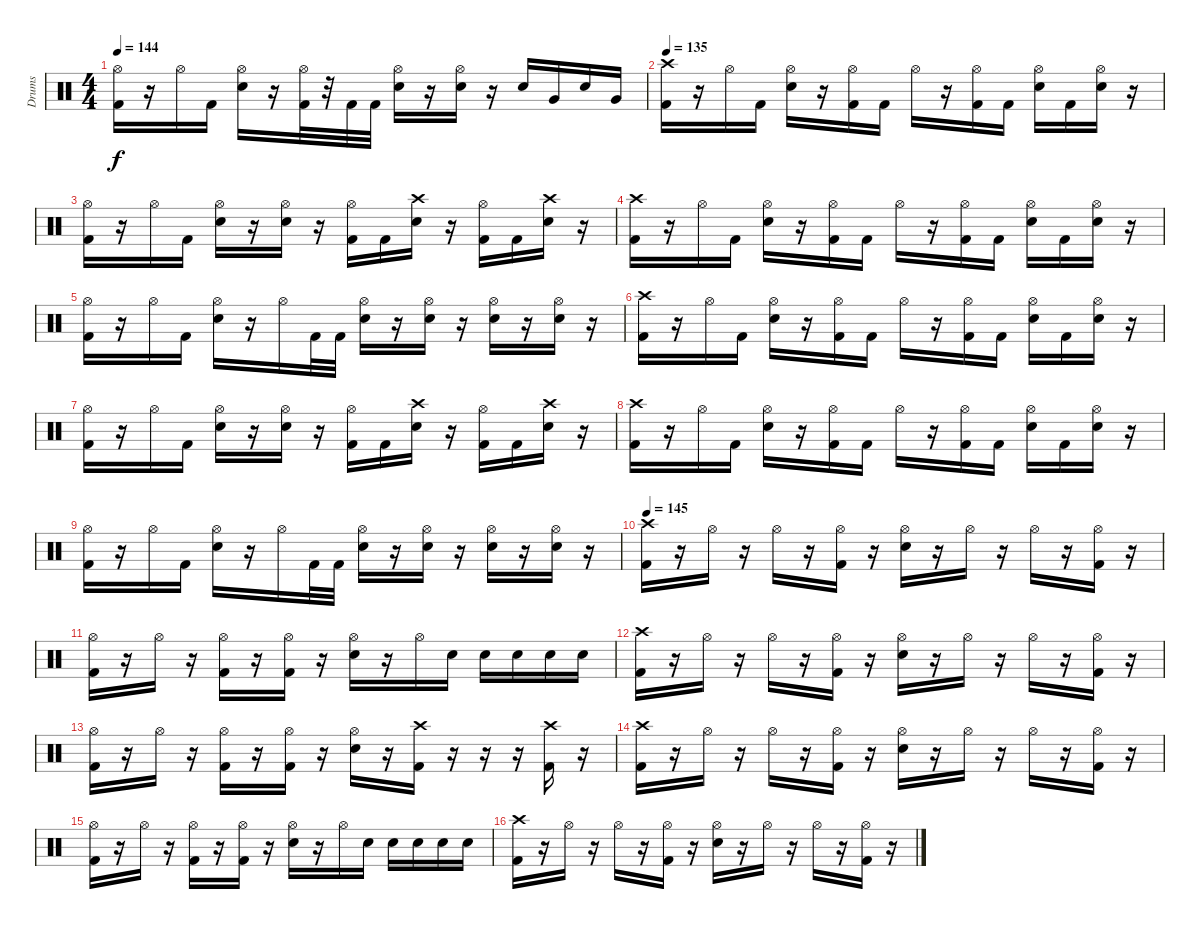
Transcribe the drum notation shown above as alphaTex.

\track ("Drums" "Drums") {instrument percussion}
\staff {score}
\articulation defaults
\ts (4 4)
\tempo 144
\clef neutral
\ks c
("Hi-Hat (open)" "Kick (hit) 2").16{dy f} r.16 "Hi-Hat (open)".16 "Kick (hit) 2".16 ("Hi-Hat (open)" "Snare (hit) 2").16 r.16 ("Hi-Hat (open)" "Kick (hit) 2").32 r.32 "Kick (hit) 2".32 "Kick (hit) 2".32 ("Hi-Hat (open)" "Snare (hit) 2").16 r.16 ("Hi-Hat (open)" "Snare (hit) 2").16 r.16 "Snare (hit) 2".16 "Very Low Tom (hit)".16 "Snare (hit) 2".16 "Very Low Tom (hit)".16 |
\tempo 135
("Crash high (hit)" "Kick (hit) 2").16 r.16 "Hi-Hat (open)".16 "Kick (hit) 2".16 ("Hi-Hat (open)" "Snare (hit) 2").16 r.16 ("Hi-Hat (open)" "Kick (hit) 2").16 "Kick (hit) 2".16 "Hi-Hat (open)".16 r.16 ("Hi-Hat (open)" "Kick (hit) 2").16 "Kick (hit) 2".16 ("Hi-Hat (open)" "Snare (hit) 2").16 "Kick (hit) 2".16 ("Hi-Hat (open)" "Snare (hit) 2").16 r.16 |
("Hi-Hat (open)" "Kick (hit) 2").16 r.16 "Hi-Hat (open)".16 "Kick (hit) 2".16 ("Hi-Hat (open)" "Snare (hit) 2").16 r.16 ("Hi-Hat (open)" "Snare (hit) 2").16 r.16 ("Hi-Hat (open)" "Kick (hit) 2").16 "Kick (hit) 2".16 ("Crash high (hit)" "Snare (hit) 2").16 r.16 ("Hi-Hat (open)" "Kick (hit) 2").16 "Kick (hit) 2".16 ("Crash high (hit)" "Snare (hit) 2").16 r.16 |
("Crash high (hit)" "Kick (hit) 2").16 r.16 "Hi-Hat (open)".16 "Kick (hit) 2".16 ("Hi-Hat (open)" "Snare (hit) 2").16 r.16 ("Hi-Hat (open)" "Kick (hit) 2").16 "Kick (hit) 2".16 "Hi-Hat (open)".16 r.16 ("Hi-Hat (open)" "Kick (hit) 2").16 "Kick (hit) 2".16 ("Hi-Hat (open)" "Snare (hit) 2").16 "Kick (hit) 2".16 ("Hi-Hat (open)" "Snare (hit) 2").16 r.16 |
("Hi-Hat (open)" "Kick (hit) 2").16 r.16 "Hi-Hat (open)".16 "Kick (hit) 2".16 ("Hi-Hat (open)" "Snare (hit) 2").16 r.16 "Hi-Hat (open)".16 "Kick (hit) 2".32 "Kick (hit) 2".32 ("Hi-Hat (open)" "Snare (hit) 2").16 r.16 ("Hi-Hat (open)" "Snare (hit) 2").16 r.16 ("Hi-Hat (open)" "Snare (hit) 2").16 r.16 ("Hi-Hat (open)" "Snare (hit) 2").16 r.16 |
("Crash high (hit)" "Kick (hit) 2").16 r.16 "Hi-Hat (open)".16 "Kick (hit) 2".16 ("Hi-Hat (open)" "Snare (hit) 2").16 r.16 ("Hi-Hat (open)" "Kick (hit) 2").16 "Kick (hit) 2".16 "Hi-Hat (open)".16 r.16 ("Hi-Hat (open)" "Kick (hit) 2").16 "Kick (hit) 2".16 ("Hi-Hat (open)" "Snare (hit) 2").16 "Kick (hit) 2".16 ("Hi-Hat (open)" "Snare (hit) 2").16 r.16 |
("Hi-Hat (open)" "Kick (hit) 2").16 r.16 "Hi-Hat (open)".16 "Kick (hit) 2".16 ("Hi-Hat (open)" "Snare (hit) 2").16 r.16 ("Hi-Hat (open)" "Snare (hit) 2").16 r.16 ("Hi-Hat (open)" "Kick (hit) 2").16 "Kick (hit) 2".16 ("Crash high (hit)" "Snare (hit) 2").16 r.16 ("Hi-Hat (open)" "Kick (hit) 2").16 "Kick (hit) 2".16 ("Crash high (hit)" "Snare (hit) 2").16 r.16 |
("Crash high (hit)" "Kick (hit) 2").16 r.16 "Hi-Hat (open)".16 "Kick (hit) 2".16 ("Hi-Hat (open)" "Snare (hit) 2").16 r.16 ("Hi-Hat (open)" "Kick (hit) 2").16 "Kick (hit) 2".16 "Hi-Hat (open)".16 r.16 ("Hi-Hat (open)" "Kick (hit) 2").16 "Kick (hit) 2".16 ("Hi-Hat (open)" "Snare (hit) 2").16 "Kick (hit) 2".16 ("Hi-Hat (open)" "Snare (hit) 2").16 r.16 |
("Hi-Hat (open)" "Kick (hit) 2").16 r.16 "Hi-Hat (open)".16 "Kick (hit) 2".16 ("Hi-Hat (open)" "Snare (hit) 2").16 r.16 "Hi-Hat (open)".16 "Kick (hit) 2".32 "Kick (hit) 2".32 ("Hi-Hat (open)" "Snare (hit) 2").16 r.16 ("Hi-Hat (open)" "Snare (hit) 2").16 r.16 ("Hi-Hat (open)" "Snare (hit) 2").16 r.16 ("Hi-Hat (open)" "Snare (hit) 2").16 r.16 |
\tempo 145
("Crash high (hit)" "Kick (hit) 2").16 r.16 "Hi-Hat (open)".16 r.16 "Hi-Hat (open)".16 r.16 ("Hi-Hat (open)" "Kick (hit) 2").16 r.16 ("Hi-Hat (open)" "Snare (hit) 2").16 r.16 "Hi-Hat (open)".16 r.16 "Hi-Hat (open)".16 r.16 ("Hi-Hat (open)" "Kick (hit) 2").16 r.16 |
("Hi-Hat (open)" "Kick (hit) 2").16 r.16 "Hi-Hat (open)".16 r.16 ("Hi-Hat (open)" "Kick (hit) 2").16 r.16 ("Hi-Hat (open)" "Kick (hit) 2").16 r.16 ("Hi-Hat (open)" "Snare (hit) 2").16 r.16 "Hi-Hat (open)".16 "Snare (hit) 2".16 "Snare (hit) 2".16 "Snare (hit) 2".16 "Snare (hit) 2".16 "Snare (hit) 2".16 |
("Crash high (hit)" "Kick (hit) 2").16 r.16 "Hi-Hat (open)".16 r.16 "Hi-Hat (open)".16 r.16 ("Hi-Hat (open)" "Kick (hit) 2").16 r.16 ("Hi-Hat (open)" "Snare (hit) 2").16 r.16 "Hi-Hat (open)".16 r.16 "Hi-Hat (open)".16 r.16 ("Hi-Hat (open)" "Kick (hit) 2").16 r.16 |
("Hi-Hat (open)" "Kick (hit) 2").16 r.16 "Hi-Hat (open)".16 r.16 ("Hi-Hat (open)" "Kick (hit) 2").16 r.16 ("Hi-Hat (open)" "Kick (hit) 2").16 r.16 ("Hi-Hat (open)" "Snare (hit) 2").16 r.16 ("Crash high (hit)" "Kick (hit) 2").16 r.16 r.16 r.16 ("Crash high (hit)" "Kick (hit) 2").16 r.16 |
("Crash high (hit)" "Kick (hit) 2").16 r.16 "Hi-Hat (open)".16 r.16 "Hi-Hat (open)".16 r.16 ("Hi-Hat (open)" "Kick (hit) 2").16 r.16 ("Hi-Hat (open)" "Snare (hit) 2").16 r.16 "Hi-Hat (open)".16 r.16 "Hi-Hat (open)".16 r.16 ("Hi-Hat (open)" "Kick (hit) 2").16 r.16 |
("Hi-Hat (open)" "Kick (hit) 2").16 r.16 "Hi-Hat (open)".16 r.16 ("Hi-Hat (open)" "Kick (hit) 2").16 r.16 ("Hi-Hat (open)" "Kick (hit) 2").16 r.16 ("Hi-Hat (open)" "Snare (hit) 2").16 r.16 "Hi-Hat (open)".16 "Snare (hit) 2".16 "Snare (hit) 2".16 "Snare (hit) 2".16 "Snare (hit) 2".16 "Snare (hit) 2".16 |
("Crash high (hit)" "Kick (hit) 2").16 r.16 "Hi-Hat (open)".16 r.16 "Hi-Hat (open)".16 r.16 ("Hi-Hat (open)" "Kick (hit) 2").16 r.16 ("Hi-Hat (open)" "Snare (hit) 2").16 r.16 "Hi-Hat (open)".16 r.16 "Hi-Hat (open)".16 r.16 ("Hi-Hat (open)" "Kick (hit) 2").16 r.16
